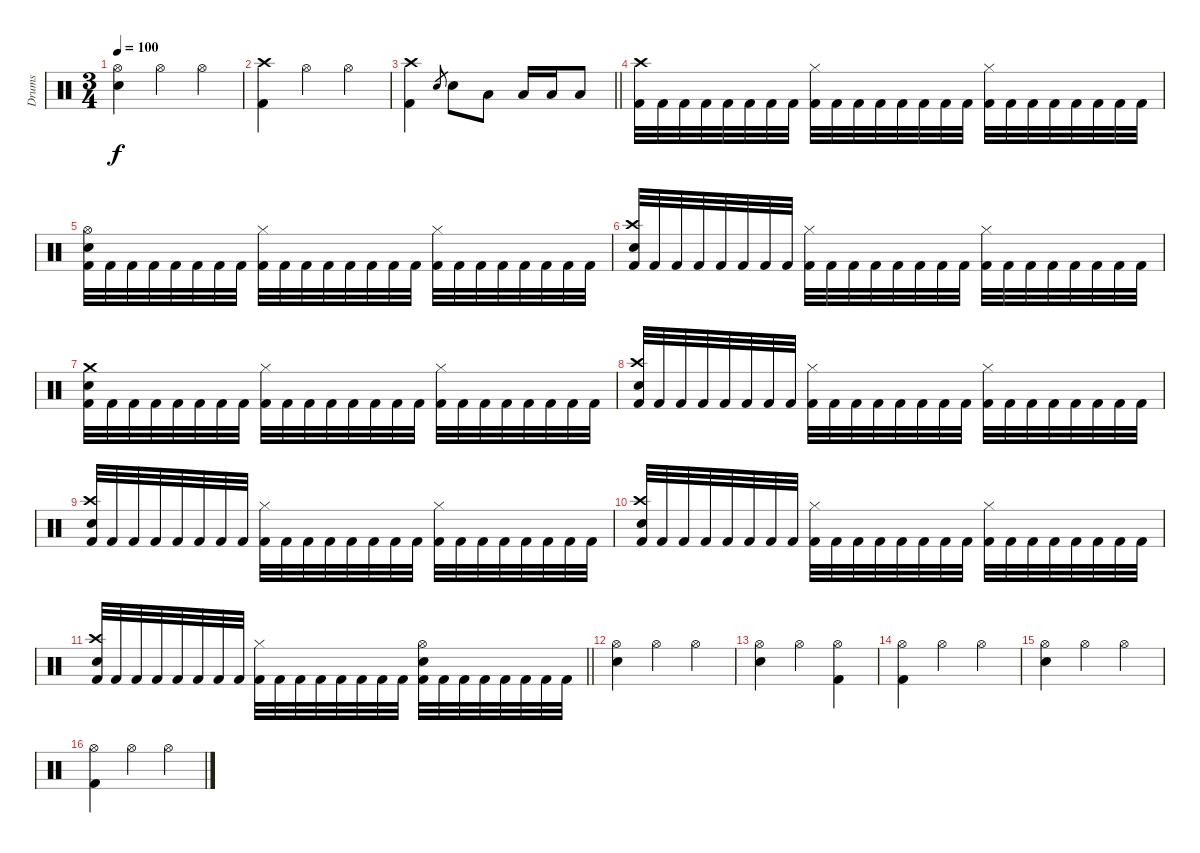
\track ("Drums" "Drums") {instrument percussion}
\staff {score}
\articulation defaults
\ts (3 4)
\tempo 100
\clef neutral
\ks c
("Hi-Hat (open)" "Snare (hit) 2").4{dy f} "Hi-Hat (open)".4 "Hi-Hat (open)".4 |
("Crash high (hit)" "Kick (hit) 2").4 "Hi-Hat (open)".4 "Hi-Hat (open)".4 |
\barLineRight lightlight
("Crash high (hit)" "Kick (hit) 2").4 "Electric Snare (hit)".8{gr} "Electric Snare (hit)".8 "Low Tom (hit)".8 "Low Tom (hit)".16 "Low Tom (hit)".16 "Low Tom (hit)".8 |
("Crash high (hit)" "Kick (hit) 2").32 "Kick (hit) 2".32 "Kick (hit) 2".32 "Kick (hit) 2".32 "Kick (hit) 2".32 "Kick (hit) 2".32 "Kick (hit) 2".32 "Kick (hit) 2".32 ("Hi-Hat (closed)" "Kick (hit) 2").32 "Kick (hit) 2".32 "Kick (hit) 2".32 "Kick (hit) 2".32 "Kick (hit) 2".32 "Kick (hit) 2".32 "Kick (hit) 2".32 "Kick (hit) 2".32 ("Hi-Hat (closed)" "Kick (hit) 2").32 "Kick (hit) 2".32 "Kick (hit) 2".32 "Kick (hit) 2".32 "Kick (hit) 2".32 "Kick (hit) 2".32 "Kick (hit) 2".32 "Kick (hit) 2".32 |
("Hi-Hat (open)" "Snare (hit) 2" "Kick (hit) 2").32 "Kick (hit) 2".32 "Kick (hit) 2".32 "Kick (hit) 2".32 "Kick (hit) 2".32 "Kick (hit) 2".32 "Kick (hit) 2".32 "Kick (hit) 2".32 ("Hi-Hat (closed)" "Kick (hit) 2").32 "Kick (hit) 2".32 "Kick (hit) 2".32 "Kick (hit) 2".32 "Kick (hit) 2".32 "Kick (hit) 2".32 "Kick (hit) 2".32 "Kick (hit) 2".32 ("Hi-Hat (closed)" "Kick (hit) 2").32 "Kick (hit) 2".32 "Kick (hit) 2".32 "Kick (hit) 2".32 "Kick (hit) 2".32 "Kick (hit) 2".32 "Kick (hit) 2".32 "Kick (hit) 2".32 |
("Crash high (hit)" "Snare (hit) 2" "Kick (hit) 2").32 "Kick (hit) 2".32 "Kick (hit) 2".32 "Kick (hit) 2".32 "Kick (hit) 2".32 "Kick (hit) 2".32 "Kick (hit) 2".32 "Kick (hit) 2".32 ("Hi-Hat (closed)" "Kick (hit) 2").32 "Kick (hit) 2".32 "Kick (hit) 2".32 "Kick (hit) 2".32 "Kick (hit) 2".32 "Kick (hit) 2".32 "Kick (hit) 2".32 "Kick (hit) 2".32 ("Hi-Hat (closed)" "Kick (hit) 2").32 "Kick (hit) 2".32 "Kick (hit) 2".32 "Kick (hit) 2".32 "Kick (hit) 2".32 "Kick (hit) 2".32 "Kick (hit) 2".32 "Kick (hit) 2".32 |
("Crash medium (hit)" "Snare (hit) 2" "Kick (hit) 2").32 "Kick (hit) 2".32 "Kick (hit) 2".32 "Kick (hit) 2".32 "Kick (hit) 2".32 "Kick (hit) 2".32 "Kick (hit) 2".32 "Kick (hit) 2".32 ("Hi-Hat (closed)" "Kick (hit) 2").32 "Kick (hit) 2".32 "Kick (hit) 2".32 "Kick (hit) 2".32 "Kick (hit) 2".32 "Kick (hit) 2".32 "Kick (hit) 2".32 "Kick (hit) 2".32 ("Hi-Hat (closed)" "Kick (hit) 2").32 "Kick (hit) 2".32 "Kick (hit) 2".32 "Kick (hit) 2".32 "Kick (hit) 2".32 "Kick (hit) 2".32 "Kick (hit) 2".32 "Kick (hit) 2".32 |
("Crash high (hit)" "Snare (hit) 2" "Kick (hit) 2").32 "Kick (hit) 2".32 "Kick (hit) 2".32 "Kick (hit) 2".32 "Kick (hit) 2".32 "Kick (hit) 2".32 "Kick (hit) 2".32 "Kick (hit) 2".32 ("Hi-Hat (closed)" "Kick (hit) 2").32 "Kick (hit) 2".32 "Kick (hit) 2".32 "Kick (hit) 2".32 "Kick (hit) 2".32 "Kick (hit) 2".32 "Kick (hit) 2".32 "Kick (hit) 2".32 ("Hi-Hat (closed)" "Kick (hit) 2").32 "Kick (hit) 2".32 "Kick (hit) 2".32 "Kick (hit) 2".32 "Kick (hit) 2".32 "Kick (hit) 2".32 "Kick (hit) 2".32 "Kick (hit) 2".32 |
("Crash high (hit)" "Snare (hit) 2" "Kick (hit) 2").32 "Kick (hit) 2".32 "Kick (hit) 2".32 "Kick (hit) 2".32 "Kick (hit) 2".32 "Kick (hit) 2".32 "Kick (hit) 2".32 "Kick (hit) 2".32 ("Hi-Hat (closed)" "Kick (hit) 2").32 "Kick (hit) 2".32 "Kick (hit) 2".32 "Kick (hit) 2".32 "Kick (hit) 2".32 "Kick (hit) 2".32 "Kick (hit) 2".32 "Kick (hit) 2".32 ("Hi-Hat (closed)" "Kick (hit) 2").32 "Kick (hit) 2".32 "Kick (hit) 2".32 "Kick (hit) 2".32 "Kick (hit) 2".32 "Kick (hit) 2".32 "Kick (hit) 2".32 "Kick (hit) 2".32 |
("Crash high (hit)" "Snare (hit) 2" "Kick (hit) 2").32 "Kick (hit) 2".32 "Kick (hit) 2".32 "Kick (hit) 2".32 "Kick (hit) 2".32 "Kick (hit) 2".32 "Kick (hit) 2".32 "Kick (hit) 2".32 ("Hi-Hat (closed)" "Kick (hit) 2").32 "Kick (hit) 2".32 "Kick (hit) 2".32 "Kick (hit) 2".32 "Kick (hit) 2".32 "Kick (hit) 2".32 "Kick (hit) 2".32 "Kick (hit) 2".32 ("Hi-Hat (closed)" "Kick (hit) 2").32 "Kick (hit) 2".32 "Kick (hit) 2".32 "Kick (hit) 2".32 "Kick (hit) 2".32 "Kick (hit) 2".32 "Kick (hit) 2".32 "Kick (hit) 2".32 |
\barLineRight lightlight
("Crash high (hit)" "Snare (hit) 2" "Kick (hit) 2").32 "Kick (hit) 2".32 "Kick (hit) 2".32 "Kick (hit) 2".32 "Kick (hit) 2".32 "Kick (hit) 2".32 "Kick (hit) 2".32 "Kick (hit) 2".32 ("Hi-Hat (closed)" "Kick (hit) 2").32 "Kick (hit) 2".32 "Kick (hit) 2".32 "Kick (hit) 2".32 "Kick (hit) 2".32 "Kick (hit) 2".32 "Kick (hit) 2".32 "Kick (hit) 2".32 ("Hi-Hat (open)" "Snare (hit) 2" "Kick (hit) 2").32 "Kick (hit) 2".32 "Kick (hit) 2".32 "Kick (hit) 2".32 "Kick (hit) 2".32 "Kick (hit) 2".32 "Kick (hit) 2".32 "Kick (hit) 2".32 |
("Hi-Hat (open)" "Snare (hit) 2").4 "Hi-Hat (open)".4 "Hi-Hat (open)".4 |
("Hi-Hat (open)" "Snare (hit) 2").4 "Hi-Hat (open)".4 ("Hi-Hat (open)" "Kick (hit) 2").4 |
("Hi-Hat (open)" "Kick (hit) 2").4 "Hi-Hat (open)".4 "Hi-Hat (open)".4 |
("Hi-Hat (open)" "Snare (hit) 2").4 "Hi-Hat (open)".4 "Hi-Hat (open)".4 |
("Hi-Hat (open)" "Kick (hit) 2").4 "Hi-Hat (open)".4 "Hi-Hat (open)".4
